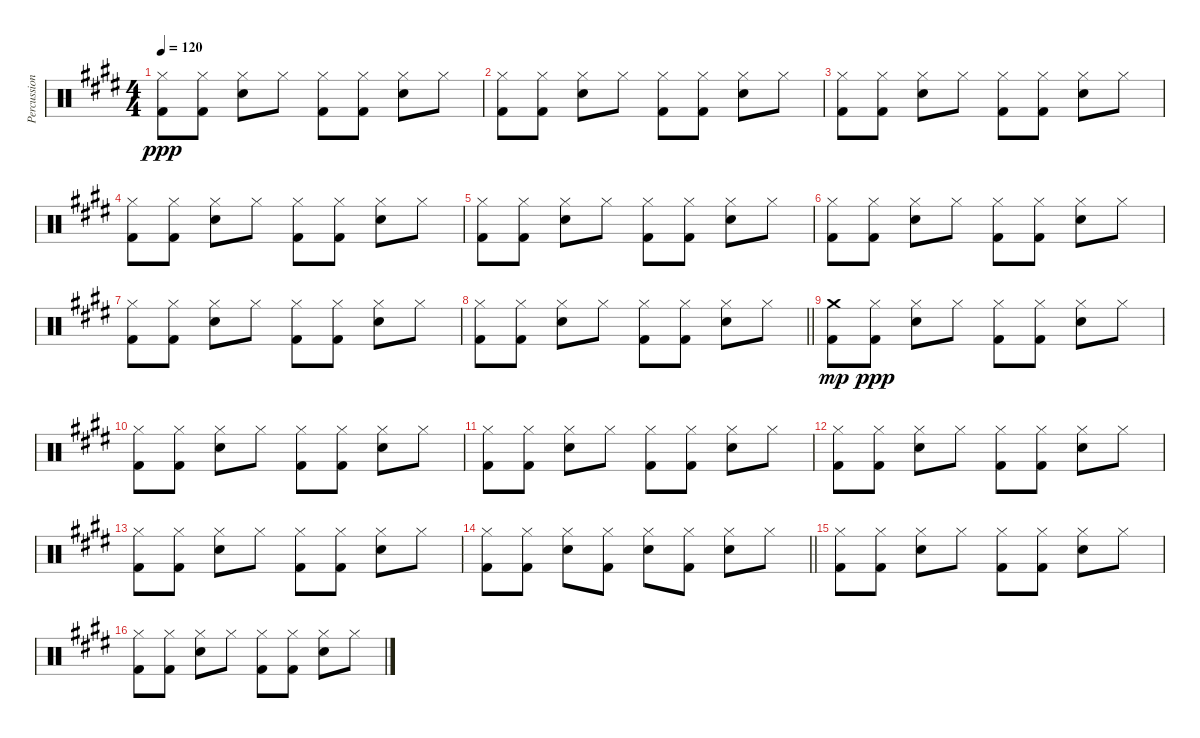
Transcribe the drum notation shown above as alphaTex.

\track ("Percussion" "Percussion") {solo instrument percussion}
\staff {score}
\articulation defaults
\ts (4 4)
\tempo 120
\clef neutral
\ks e
("Hi-Hat (closed)" "Kick (hit) 2").8{dy ppp} ("Hi-Hat (closed)" "Kick (hit) 2").8 ("Hi-Hat (closed)" "Snare (hit) 2").8 "Hi-Hat (closed)".8 ("Hi-Hat (closed)" "Kick (hit) 2").8 ("Hi-Hat (closed)" "Kick (hit) 2").8 ("Hi-Hat (closed)" "Snare (hit) 2").8 "Hi-Hat (closed)".8 |
("Hi-Hat (closed)" "Kick (hit) 2").8 ("Hi-Hat (closed)" "Kick (hit) 2").8 ("Hi-Hat (closed)" "Snare (hit) 2").8 "Hi-Hat (closed)".8 ("Hi-Hat (closed)" "Kick (hit) 2").8 ("Hi-Hat (closed)" "Kick (hit) 2").8 ("Hi-Hat (closed)" "Snare (hit) 2").8 "Hi-Hat (closed)".8 |
("Hi-Hat (closed)" "Kick (hit) 2").8 ("Hi-Hat (closed)" "Kick (hit) 2").8 ("Hi-Hat (closed)" "Snare (hit) 2").8 "Hi-Hat (closed)".8 ("Hi-Hat (closed)" "Kick (hit) 2").8 ("Hi-Hat (closed)" "Kick (hit) 2").8 ("Hi-Hat (closed)" "Snare (hit) 2").8 "Hi-Hat (closed)".8 |
("Hi-Hat (closed)" "Kick (hit) 2").8 ("Hi-Hat (closed)" "Kick (hit) 2").8 ("Hi-Hat (closed)" "Snare (hit) 2").8 "Hi-Hat (closed)".8 ("Hi-Hat (closed)" "Kick (hit) 2").8 ("Hi-Hat (closed)" "Kick (hit) 2").8 ("Hi-Hat (closed)" "Snare (hit) 2").8 "Hi-Hat (closed)".8 |
("Hi-Hat (closed)" "Kick (hit) 2").8 ("Hi-Hat (closed)" "Kick (hit) 2").8 ("Hi-Hat (closed)" "Snare (hit) 2").8 "Hi-Hat (closed)".8 ("Hi-Hat (closed)" "Kick (hit) 2").8 ("Hi-Hat (closed)" "Kick (hit) 2").8 ("Hi-Hat (closed)" "Snare (hit) 2").8 "Hi-Hat (closed)".8 |
("Hi-Hat (closed)" "Kick (hit) 2").8 ("Hi-Hat (closed)" "Kick (hit) 2").8 ("Hi-Hat (closed)" "Snare (hit) 2").8 "Hi-Hat (closed)".8 ("Hi-Hat (closed)" "Kick (hit) 2").8 ("Hi-Hat (closed)" "Kick (hit) 2").8 ("Hi-Hat (closed)" "Snare (hit) 2").8 "Hi-Hat (closed)".8 |
("Hi-Hat (closed)" "Kick (hit) 2").8 ("Hi-Hat (closed)" "Kick (hit) 2").8 ("Hi-Hat (closed)" "Snare (hit) 2").8 "Hi-Hat (closed)".8 ("Hi-Hat (closed)" "Kick (hit) 2").8 ("Hi-Hat (closed)" "Kick (hit) 2").8 ("Hi-Hat (closed)" "Snare (hit) 2").8 "Hi-Hat (closed)".8 |
\barLineRight lightlight
("Hi-Hat (closed)" "Kick (hit) 2").8 ("Hi-Hat (closed)" "Kick (hit) 2").8 ("Hi-Hat (closed)" "Snare (hit) 2").8 "Hi-Hat (closed)".8 ("Hi-Hat (closed)" "Kick (hit) 2").8 ("Hi-Hat (closed)" "Kick (hit) 2").8 ("Hi-Hat (closed)" "Snare (hit) 2").8 "Hi-Hat (closed)".8 |
("Crash medium (hit)" "Kick (hit) 2").8{dy mp} ("Hi-Hat (closed)" "Kick (hit) 2").8{dy ppp} ("Hi-Hat (closed)" "Snare (hit) 2").8 "Hi-Hat (closed)".8 ("Hi-Hat (closed)" "Kick (hit) 2").8 ("Hi-Hat (closed)" "Kick (hit) 2").8 ("Hi-Hat (closed)" "Snare (hit) 2").8 "Hi-Hat (closed)".8 |
("Hi-Hat (closed)" "Kick (hit) 2").8 ("Hi-Hat (closed)" "Kick (hit) 2").8 ("Hi-Hat (closed)" "Snare (hit) 2").8 "Hi-Hat (closed)".8 ("Hi-Hat (closed)" "Kick (hit) 2").8 ("Hi-Hat (closed)" "Kick (hit) 2").8 ("Hi-Hat (closed)" "Snare (hit) 2").8 "Hi-Hat (closed)".8 |
("Hi-Hat (closed)" "Kick (hit) 2").8 ("Hi-Hat (closed)" "Kick (hit) 2").8 ("Hi-Hat (closed)" "Snare (hit) 2").8 "Hi-Hat (closed)".8 ("Hi-Hat (closed)" "Kick (hit) 2").8 ("Hi-Hat (closed)" "Kick (hit) 2").8 ("Hi-Hat (closed)" "Snare (hit) 2").8 "Hi-Hat (closed)".8 |
("Hi-Hat (closed)" "Kick (hit) 2").8 ("Hi-Hat (closed)" "Kick (hit) 2").8 ("Hi-Hat (closed)" "Snare (hit) 2").8 "Hi-Hat (closed)".8 ("Hi-Hat (closed)" "Kick (hit) 2").8 ("Hi-Hat (closed)" "Kick (hit) 2").8 ("Hi-Hat (closed)" "Snare (hit) 2").8 "Hi-Hat (closed)".8 |
("Hi-Hat (closed)" "Kick (hit) 2").8 ("Hi-Hat (closed)" "Kick (hit) 2").8 ("Hi-Hat (closed)" "Snare (hit) 2").8 "Hi-Hat (closed)".8 ("Hi-Hat (closed)" "Kick (hit) 2").8 ("Hi-Hat (closed)" "Kick (hit) 2").8 ("Hi-Hat (closed)" "Snare (hit) 2").8 "Hi-Hat (closed)".8 |
\barLineRight lightlight
("Hi-Hat (closed)" "Kick (hit) 2").8 ("Hi-Hat (closed)" "Kick (hit) 2").8 ("Hi-Hat (closed)" "Snare (hit) 2").8 ("Hi-Hat (closed)" "Kick (hit) 2").8 ("Hi-Hat (closed)" "Snare (hit) 2").8 ("Hi-Hat (closed)" "Kick (hit) 2").8 ("Hi-Hat (closed)" "Snare (hit) 2").8 "Hi-Hat (closed)".8 |
("Hi-Hat (closed)" "Kick (hit) 2").8 ("Hi-Hat (closed)" "Kick (hit) 2").8 ("Hi-Hat (closed)" "Snare (hit) 2").8 "Hi-Hat (closed)".8 ("Hi-Hat (closed)" "Kick (hit) 2").8 ("Hi-Hat (closed)" "Kick (hit) 2").8 ("Hi-Hat (closed)" "Snare (hit) 2").8 "Hi-Hat (closed)".8 |
("Hi-Hat (closed)" "Kick (hit) 2").8 ("Hi-Hat (closed)" "Kick (hit) 2").8 ("Hi-Hat (closed)" "Snare (hit) 2").8 "Hi-Hat (closed)".8 ("Hi-Hat (closed)" "Kick (hit) 2").8 ("Hi-Hat (closed)" "Kick (hit) 2").8 ("Hi-Hat (closed)" "Snare (hit) 2").8 "Hi-Hat (closed)".8
